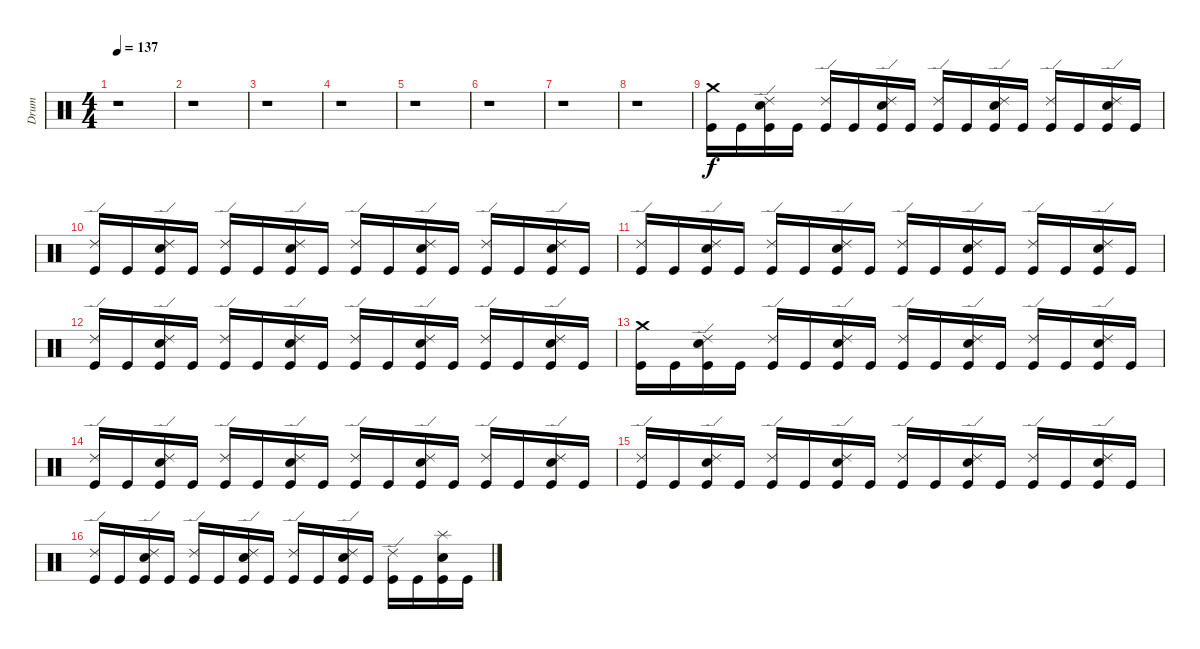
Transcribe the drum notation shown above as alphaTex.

\track ("Drum" "Drum") {instrument percussion}
\staff {score}
\articulation defaults
\ts (4 4)
\tempo 137
\clef neutral
\ks c
r.1{dy f} |
r.1 |
r.1 |
r.1 |
r.1 |
r.1 |
r.1 |
r.1 |
("Crash medium (hit)" "Kick (hit)").16 "Kick (hit)".16 ("Ride (edge) 2" "Snare (hit) 2" "Kick (hit)").16 "Kick (hit)".16 ("Ride (edge) 2" "Kick (hit)").16 "Kick (hit)".16 ("Ride (edge) 2" "Snare (hit) 2" "Kick (hit)").16 "Kick (hit)".16 ("Ride (edge) 2" "Kick (hit)").16 "Kick (hit)".16 ("Ride (edge) 2" "Snare (hit) 2" "Kick (hit)").16 "Kick (hit)".16 ("Ride (edge) 2" "Kick (hit)").16 "Kick (hit)".16 ("Ride (edge) 2" "Snare (hit) 2" "Kick (hit)").16 "Kick (hit)".16 |
("Ride (edge) 2" "Kick (hit)").16 "Kick (hit)".16 ("Ride (edge) 2" "Snare (hit) 2" "Kick (hit)").16 "Kick (hit)".16 ("Ride (edge) 2" "Kick (hit)").16 "Kick (hit)".16 ("Ride (edge) 2" "Snare (hit) 2" "Kick (hit)").16 "Kick (hit)".16 ("Ride (edge) 2" "Kick (hit)").16 "Kick (hit)".16 ("Ride (edge) 2" "Snare (hit) 2" "Kick (hit)").16 "Kick (hit)".16 ("Ride (edge) 2" "Kick (hit)").16 "Kick (hit)".16 ("Ride (edge) 2" "Snare (hit) 2" "Kick (hit)").16 "Kick (hit)".16 |
("Ride (edge) 2" "Kick (hit)").16 "Kick (hit)".16 ("Ride (edge) 2" "Snare (hit) 2" "Kick (hit)").16 "Kick (hit)".16 ("Ride (edge) 2" "Kick (hit)").16 "Kick (hit)".16 ("Ride (edge) 2" "Snare (hit) 2" "Kick (hit)").16 "Kick (hit)".16 ("Ride (edge) 2" "Kick (hit)").16 "Kick (hit)".16 ("Ride (edge) 2" "Snare (hit) 2" "Kick (hit)").16 "Kick (hit)".16 ("Ride (edge) 2" "Kick (hit)").16 "Kick (hit)".16 ("Ride (edge) 2" "Snare (hit) 2" "Kick (hit)").16 "Kick (hit)".16 |
("Ride (edge) 2" "Kick (hit)").16 "Kick (hit)".16 ("Ride (edge) 2" "Snare (hit) 2" "Kick (hit)").16 "Kick (hit)".16 ("Ride (edge) 2" "Kick (hit)").16 "Kick (hit)".16 ("Ride (edge) 2" "Snare (hit) 2" "Kick (hit)").16 "Kick (hit)".16 ("Ride (edge) 2" "Kick (hit)").16 "Kick (hit)".16 ("Ride (edge) 2" "Snare (hit) 2" "Kick (hit)").16 "Kick (hit)".16 ("Ride (edge) 2" "Kick (hit)").16 "Kick (hit)".16 ("Ride (edge) 2" "Snare (hit) 2" "Kick (hit)").16 "Kick (hit)".16 |
("Crash medium (hit)" "Kick (hit)").16 "Kick (hit)".16 ("Ride (edge) 2" "Snare (hit) 2" "Kick (hit)").16 "Kick (hit)".16 ("Ride (edge) 2" "Kick (hit)").16 "Kick (hit)".16 ("Ride (edge) 2" "Snare (hit) 2" "Kick (hit)").16 "Kick (hit)".16 ("Ride (edge) 2" "Kick (hit)").16 "Kick (hit)".16 ("Ride (edge) 2" "Snare (hit) 2" "Kick (hit)").16 "Kick (hit)".16 ("Ride (edge) 2" "Kick (hit)").16 "Kick (hit)".16 ("Ride (edge) 2" "Snare (hit) 2" "Kick (hit)").16 "Kick (hit)".16 |
("Ride (edge) 2" "Kick (hit)").16 "Kick (hit)".16 ("Ride (edge) 2" "Snare (hit) 2" "Kick (hit)").16 "Kick (hit)".16 ("Ride (edge) 2" "Kick (hit)").16 "Kick (hit)".16 ("Ride (edge) 2" "Snare (hit) 2" "Kick (hit)").16 "Kick (hit)".16 ("Ride (edge) 2" "Kick (hit)").16 "Kick (hit)".16 ("Ride (edge) 2" "Snare (hit) 2" "Kick (hit)").16 "Kick (hit)".16 ("Ride (edge) 2" "Kick (hit)").16 "Kick (hit)".16 ("Ride (edge) 2" "Snare (hit) 2" "Kick (hit)").16 "Kick (hit)".16 |
("Ride (edge) 2" "Kick (hit)").16 "Kick (hit)".16 ("Ride (edge) 2" "Snare (hit) 2" "Kick (hit)").16 "Kick (hit)".16 ("Ride (edge) 2" "Kick (hit)").16 "Kick (hit)".16 ("Ride (edge) 2" "Snare (hit) 2" "Kick (hit)").16 "Kick (hit)".16 ("Ride (edge) 2" "Kick (hit)").16 "Kick (hit)".16 ("Ride (edge) 2" "Snare (hit) 2" "Kick (hit)").16 "Kick (hit)".16 ("Ride (edge) 2" "Kick (hit)").16 "Kick (hit)".16 ("Ride (edge) 2" "Snare (hit) 2" "Kick (hit)").16 "Kick (hit)".16 |
("Ride (edge) 2" "Kick (hit)").16 "Kick (hit)".16 ("Ride (edge) 2" "Snare (hit) 2" "Kick (hit)").16 "Kick (hit)".16 ("Ride (edge) 2" "Kick (hit)").16 "Kick (hit)".16 ("Ride (edge) 2" "Snare (hit) 2" "Kick (hit)").16 "Kick (hit)".16 ("Ride (edge) 2" "Kick (hit)").16 "Kick (hit)".16 ("Ride (edge) 2" "Snare (hit) 2" "Kick (hit)").16 "Kick (hit)".16 ("Ride (edge) 2" "Kick (hit)").16 "Kick (hit)".16 ("Splash (hit)" "Snare (hit) 2" "Kick (hit)").16 "Kick (hit)".16
